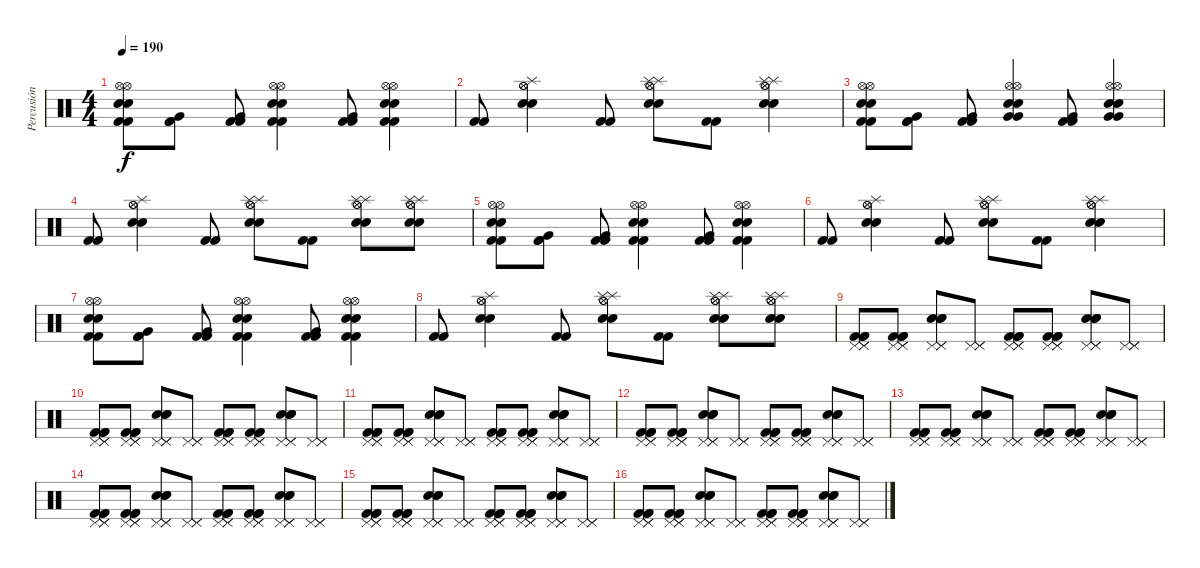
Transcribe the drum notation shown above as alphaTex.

\track ("Percusión" "Percusión") {instrument percussion}
\staff {score}
\articulation defaults
\ts (4 4)
\tempo 190
\clef neutral
\ks c
("Kick (hit) 2" "Kick (hit) 2" "Snare (hit) 2" "Snare (hit) 2" "Hi-Hat (open)" "Hi-Hat (open)").8{dy f} ("Kick (hit) 2" "Kick (hit) 2" "Very Low Tom (hit)").8 ("Kick (hit) 2" "Kick (hit) 2" "Very Low Tom (hit)").8 ("Kick (hit) 2" "Kick (hit) 2" "Snare (hit) 2" "Snare (hit) 2" "Hi-Hat (open)" "Hi-Hat (open)").4 ("Kick (hit) 2" "Kick (hit) 2" "Very Low Tom (hit)").8 ("Kick (hit) 2" "Kick (hit) 2" "Snare (hit) 2" "Snare (hit) 2" "Hi-Hat (open)" "Hi-Hat (open)").4 |
("Kick (hit) 2" "Kick (hit) 2").8 ("Snare (hit) 2" "Snare (hit) 2" "Hi-Hat (open)" "Hi-Hat (open)" "Splash (hit)").4 ("Kick (hit) 2" "Kick (hit) 2").8 ("Snare (hit) 2" "Snare (hit) 2" "Hi-Hat (open)" "Hi-Hat (open)" "Splash (hit)" "Splash (hit)").8 ("Kick (hit) 2" "Kick (hit) 2").8 ("Snare (hit) 2" "Snare (hit) 2" "Hi-Hat (open)" "Hi-Hat (open)" "Splash (hit)" "Splash (hit)").4 |
("Kick (hit) 2" "Kick (hit) 2" "Snare (hit) 2" "Snare (hit) 2" "Hi-Hat (open)" "Hi-Hat (open)").8 ("Kick (hit) 2" "Kick (hit) 2" "Very Low Tom (hit)").8 ("Kick (hit) 2" "Kick (hit) 2" "Very Low Tom (hit)").8 ("Very Low Tom (hit)" "Very Low Tom (hit)" "Snare (hit) 2" "Snare (hit) 2" "Hi-Hat (open)" "Hi-Hat (open)").4 ("Kick (hit) 2" "Kick (hit) 2" "Very Low Tom (hit)").8 ("Very Low Tom (hit)" "Very Low Tom (hit)" "Snare (hit) 2" "Snare (hit) 2" "Hi-Hat (open)" "Hi-Hat (open)").4 |
("Kick (hit) 2" "Kick (hit) 2").8 ("Snare (hit) 2" "Snare (hit) 2" "Hi-Hat (open)" "Hi-Hat (open)" "Splash (hit)").4 ("Kick (hit) 2" "Kick (hit) 2").8 ("Snare (hit) 2" "Snare (hit) 2" "Hi-Hat (open)" "Hi-Hat (open)" "Splash (hit)" "Splash (hit)").8 ("Kick (hit) 2" "Kick (hit) 2").8 ("Snare (hit) 2" "Snare (hit) 2" "Hi-Hat (open)" "Hi-Hat (open)" "Splash (hit)" "Splash (hit)").8 ("Snare (hit) 2" "Snare (hit) 2" "Hi-Hat (open)" "Hi-Hat (open)" "Splash (hit)" "Splash (hit)").8 |
("Kick (hit) 2" "Kick (hit) 2" "Snare (hit) 2" "Snare (hit) 2" "Hi-Hat (open)" "Hi-Hat (open)").8 ("Kick (hit) 2" "Kick (hit) 2" "Very Low Tom (hit)").8 ("Kick (hit) 2" "Kick (hit) 2" "Very Low Tom (hit)").8 ("Kick (hit) 2" "Kick (hit) 2" "Snare (hit) 2" "Snare (hit) 2" "Hi-Hat (open)" "Hi-Hat (open)").4 ("Kick (hit) 2" "Kick (hit) 2" "Very Low Tom (hit)").8 ("Kick (hit) 2" "Kick (hit) 2" "Snare (hit) 2" "Snare (hit) 2" "Hi-Hat (open)" "Hi-Hat (open)").4 |
("Kick (hit) 2" "Kick (hit) 2").8 ("Snare (hit) 2" "Snare (hit) 2" "Hi-Hat (open)" "Hi-Hat (open)" "Splash (hit)").4 ("Kick (hit) 2" "Kick (hit) 2").8 ("Snare (hit) 2" "Snare (hit) 2" "Hi-Hat (open)" "Hi-Hat (open)" "Splash (hit)" "Splash (hit)").8 ("Kick (hit) 2" "Kick (hit) 2").8 ("Snare (hit) 2" "Snare (hit) 2" "Hi-Hat (open)" "Hi-Hat (open)" "Splash (hit)" "Splash (hit)").4 |
("Kick (hit) 2" "Kick (hit) 2" "Snare (hit) 2" "Snare (hit) 2" "Hi-Hat (open)" "Hi-Hat (open)").8 ("Kick (hit) 2" "Kick (hit) 2" "Very Low Tom (hit)").8 ("Kick (hit) 2" "Kick (hit) 2" "Very Low Tom (hit)").8 ("Kick (hit) 2" "Kick (hit) 2" "Snare (hit) 2" "Snare (hit) 2" "Hi-Hat (open)" "Hi-Hat (open)").4 ("Kick (hit) 2" "Kick (hit) 2" "Very Low Tom (hit)").8 ("Kick (hit) 2" "Kick (hit) 2" "Snare (hit) 2" "Snare (hit) 2" "Hi-Hat (open)" "Hi-Hat (open)").4 |
("Kick (hit) 2" "Kick (hit) 2").8 ("Snare (hit) 2" "Snare (hit) 2" "Hi-Hat (open)" "Hi-Hat (open)" "Splash (hit)").4 ("Kick (hit) 2" "Kick (hit) 2").8 ("Snare (hit) 2" "Snare (hit) 2" "Hi-Hat (open)" "Hi-Hat (open)" "Splash (hit)" "Splash (hit)").8 ("Kick (hit) 2" "Kick (hit) 2").8 ("Snare (hit) 2" "Snare (hit) 2" "Hi-Hat (open)" "Hi-Hat (open)" "Splash (hit)" "Splash (hit)").8 ("Snare (hit) 2" "Snare (hit) 2" "Hi-Hat (open)" "Hi-Hat (open)" "Splash (hit)" "Splash (hit)").8 |
("Kick (hit) 2" "Kick (hit) 2" "Kick (hit) 2" "Pedal Hi-Hat (hit)" "Pedal Hi-Hat (hit)" "Pedal Hi-Hat (hit)").8 ("Kick (hit) 2" "Kick (hit) 2" "Kick (hit) 2" "Pedal Hi-Hat (hit)" "Pedal Hi-Hat (hit)" "Pedal Hi-Hat (hit)").8 ("Snare (hit) 2" "Snare (hit) 2" "Snare (hit) 2" "Pedal Hi-Hat (hit)" "Pedal Hi-Hat (hit)" "Pedal Hi-Hat (hit)").8 ("Pedal Hi-Hat (hit)" "Pedal Hi-Hat (hit)" "Pedal Hi-Hat (hit)").8 ("Kick (hit) 2" "Kick (hit) 2" "Kick (hit) 2" "Pedal Hi-Hat (hit)" "Pedal Hi-Hat (hit)" "Pedal Hi-Hat (hit)").8 ("Kick (hit) 2" "Kick (hit) 2" "Kick (hit) 2" "Pedal Hi-Hat (hit)" "Pedal Hi-Hat (hit)" "Pedal Hi-Hat (hit)").8 ("Snare (hit) 2" "Snare (hit) 2" "Snare (hit) 2" "Pedal Hi-Hat (hit)" "Pedal Hi-Hat (hit)" "Pedal Hi-Hat (hit)").8 ("Pedal Hi-Hat (hit)" "Pedal Hi-Hat (hit)" "Pedal Hi-Hat (hit)").8 |
("Kick (hit) 2" "Kick (hit) 2" "Kick (hit) 2" "Pedal Hi-Hat (hit)" "Pedal Hi-Hat (hit)" "Pedal Hi-Hat (hit)").8 ("Kick (hit) 2" "Kick (hit) 2" "Kick (hit) 2" "Pedal Hi-Hat (hit)" "Pedal Hi-Hat (hit)" "Pedal Hi-Hat (hit)").8 ("Snare (hit) 2" "Snare (hit) 2" "Snare (hit) 2" "Pedal Hi-Hat (hit)" "Pedal Hi-Hat (hit)" "Pedal Hi-Hat (hit)").8 ("Pedal Hi-Hat (hit)" "Pedal Hi-Hat (hit)" "Pedal Hi-Hat (hit)").8 ("Kick (hit) 2" "Kick (hit) 2" "Kick (hit) 2" "Pedal Hi-Hat (hit)" "Pedal Hi-Hat (hit)" "Pedal Hi-Hat (hit)").8 ("Kick (hit) 2" "Kick (hit) 2" "Kick (hit) 2" "Pedal Hi-Hat (hit)" "Pedal Hi-Hat (hit)" "Pedal Hi-Hat (hit)").8 ("Snare (hit) 2" "Snare (hit) 2" "Snare (hit) 2" "Pedal Hi-Hat (hit)" "Pedal Hi-Hat (hit)" "Pedal Hi-Hat (hit)").8 ("Pedal Hi-Hat (hit)" "Pedal Hi-Hat (hit)" "Pedal Hi-Hat (hit)").8 |
("Kick (hit) 2" "Kick (hit) 2" "Kick (hit) 2" "Pedal Hi-Hat (hit)" "Pedal Hi-Hat (hit)" "Pedal Hi-Hat (hit)").8 ("Kick (hit) 2" "Kick (hit) 2" "Kick (hit) 2" "Pedal Hi-Hat (hit)" "Pedal Hi-Hat (hit)" "Pedal Hi-Hat (hit)").8 ("Snare (hit) 2" "Snare (hit) 2" "Snare (hit) 2" "Pedal Hi-Hat (hit)" "Pedal Hi-Hat (hit)" "Pedal Hi-Hat (hit)").8 ("Pedal Hi-Hat (hit)" "Pedal Hi-Hat (hit)" "Pedal Hi-Hat (hit)").8 ("Kick (hit) 2" "Kick (hit) 2" "Kick (hit) 2" "Pedal Hi-Hat (hit)" "Pedal Hi-Hat (hit)" "Pedal Hi-Hat (hit)").8 ("Kick (hit) 2" "Kick (hit) 2" "Kick (hit) 2" "Pedal Hi-Hat (hit)" "Pedal Hi-Hat (hit)" "Pedal Hi-Hat (hit)").8 ("Snare (hit) 2" "Snare (hit) 2" "Snare (hit) 2" "Pedal Hi-Hat (hit)" "Pedal Hi-Hat (hit)" "Pedal Hi-Hat (hit)").8 ("Pedal Hi-Hat (hit)" "Pedal Hi-Hat (hit)" "Pedal Hi-Hat (hit)").8 |
("Kick (hit) 2" "Kick (hit) 2" "Kick (hit) 2" "Pedal Hi-Hat (hit)" "Pedal Hi-Hat (hit)" "Pedal Hi-Hat (hit)").8 ("Kick (hit) 2" "Kick (hit) 2" "Kick (hit) 2" "Pedal Hi-Hat (hit)" "Pedal Hi-Hat (hit)" "Pedal Hi-Hat (hit)").8 ("Snare (hit) 2" "Snare (hit) 2" "Snare (hit) 2" "Pedal Hi-Hat (hit)" "Pedal Hi-Hat (hit)" "Pedal Hi-Hat (hit)").8 ("Pedal Hi-Hat (hit)" "Pedal Hi-Hat (hit)" "Pedal Hi-Hat (hit)").8 ("Kick (hit) 2" "Kick (hit) 2" "Kick (hit) 2" "Pedal Hi-Hat (hit)" "Pedal Hi-Hat (hit)" "Pedal Hi-Hat (hit)").8 ("Kick (hit) 2" "Kick (hit) 2" "Kick (hit) 2" "Pedal Hi-Hat (hit)" "Pedal Hi-Hat (hit)" "Pedal Hi-Hat (hit)").8 ("Snare (hit) 2" "Snare (hit) 2" "Snare (hit) 2" "Pedal Hi-Hat (hit)" "Pedal Hi-Hat (hit)" "Pedal Hi-Hat (hit)").8 ("Pedal Hi-Hat (hit)" "Pedal Hi-Hat (hit)" "Pedal Hi-Hat (hit)").8 |
("Kick (hit) 2" "Kick (hit) 2" "Kick (hit) 2" "Pedal Hi-Hat (hit)" "Pedal Hi-Hat (hit)" "Pedal Hi-Hat (hit)").8 ("Kick (hit) 2" "Kick (hit) 2" "Kick (hit) 2" "Pedal Hi-Hat (hit)" "Pedal Hi-Hat (hit)" "Pedal Hi-Hat (hit)").8 ("Snare (hit) 2" "Snare (hit) 2" "Snare (hit) 2" "Pedal Hi-Hat (hit)" "Pedal Hi-Hat (hit)" "Pedal Hi-Hat (hit)").8 ("Pedal Hi-Hat (hit)" "Pedal Hi-Hat (hit)" "Pedal Hi-Hat (hit)").8 ("Kick (hit) 2" "Kick (hit) 2" "Kick (hit) 2" "Pedal Hi-Hat (hit)" "Pedal Hi-Hat (hit)" "Pedal Hi-Hat (hit)").8 ("Kick (hit) 2" "Kick (hit) 2" "Kick (hit) 2" "Pedal Hi-Hat (hit)" "Pedal Hi-Hat (hit)" "Pedal Hi-Hat (hit)").8 ("Snare (hit) 2" "Snare (hit) 2" "Snare (hit) 2" "Pedal Hi-Hat (hit)" "Pedal Hi-Hat (hit)" "Pedal Hi-Hat (hit)").8 ("Pedal Hi-Hat (hit)" "Pedal Hi-Hat (hit)" "Pedal Hi-Hat (hit)").8 |
("Kick (hit) 2" "Kick (hit) 2" "Kick (hit) 2" "Pedal Hi-Hat (hit)" "Pedal Hi-Hat (hit)" "Pedal Hi-Hat (hit)").8 ("Kick (hit) 2" "Kick (hit) 2" "Kick (hit) 2" "Pedal Hi-Hat (hit)" "Pedal Hi-Hat (hit)" "Pedal Hi-Hat (hit)").8 ("Snare (hit) 2" "Snare (hit) 2" "Snare (hit) 2" "Pedal Hi-Hat (hit)" "Pedal Hi-Hat (hit)" "Pedal Hi-Hat (hit)").8 ("Pedal Hi-Hat (hit)" "Pedal Hi-Hat (hit)" "Pedal Hi-Hat (hit)").8 ("Kick (hit) 2" "Kick (hit) 2" "Kick (hit) 2" "Pedal Hi-Hat (hit)" "Pedal Hi-Hat (hit)" "Pedal Hi-Hat (hit)").8 ("Kick (hit) 2" "Kick (hit) 2" "Kick (hit) 2" "Pedal Hi-Hat (hit)" "Pedal Hi-Hat (hit)" "Pedal Hi-Hat (hit)").8 ("Snare (hit) 2" "Snare (hit) 2" "Snare (hit) 2" "Pedal Hi-Hat (hit)" "Pedal Hi-Hat (hit)" "Pedal Hi-Hat (hit)").8 ("Pedal Hi-Hat (hit)" "Pedal Hi-Hat (hit)" "Pedal Hi-Hat (hit)").8 |
("Kick (hit) 2" "Kick (hit) 2" "Kick (hit) 2" "Pedal Hi-Hat (hit)" "Pedal Hi-Hat (hit)" "Pedal Hi-Hat (hit)").8 ("Kick (hit) 2" "Kick (hit) 2" "Kick (hit) 2" "Pedal Hi-Hat (hit)" "Pedal Hi-Hat (hit)" "Pedal Hi-Hat (hit)").8 ("Snare (hit) 2" "Snare (hit) 2" "Snare (hit) 2" "Pedal Hi-Hat (hit)" "Pedal Hi-Hat (hit)" "Pedal Hi-Hat (hit)").8 ("Pedal Hi-Hat (hit)" "Pedal Hi-Hat (hit)" "Pedal Hi-Hat (hit)").8 ("Kick (hit) 2" "Kick (hit) 2" "Kick (hit) 2" "Pedal Hi-Hat (hit)" "Pedal Hi-Hat (hit)" "Pedal Hi-Hat (hit)").8 ("Kick (hit) 2" "Kick (hit) 2" "Kick (hit) 2" "Pedal Hi-Hat (hit)" "Pedal Hi-Hat (hit)" "Pedal Hi-Hat (hit)").8 ("Snare (hit) 2" "Snare (hit) 2" "Snare (hit) 2" "Pedal Hi-Hat (hit)" "Pedal Hi-Hat (hit)" "Pedal Hi-Hat (hit)").8 ("Pedal Hi-Hat (hit)" "Pedal Hi-Hat (hit)" "Pedal Hi-Hat (hit)").8 |
("Kick (hit) 2" "Kick (hit) 2" "Kick (hit) 2" "Pedal Hi-Hat (hit)" "Pedal Hi-Hat (hit)" "Pedal Hi-Hat (hit)").8 ("Kick (hit) 2" "Kick (hit) 2" "Kick (hit) 2" "Pedal Hi-Hat (hit)" "Pedal Hi-Hat (hit)" "Pedal Hi-Hat (hit)").8 ("Snare (hit) 2" "Snare (hit) 2" "Snare (hit) 2" "Pedal Hi-Hat (hit)" "Pedal Hi-Hat (hit)" "Pedal Hi-Hat (hit)").8 ("Pedal Hi-Hat (hit)" "Pedal Hi-Hat (hit)" "Pedal Hi-Hat (hit)").8 ("Kick (hit) 2" "Kick (hit) 2" "Kick (hit) 2" "Pedal Hi-Hat (hit)" "Pedal Hi-Hat (hit)" "Pedal Hi-Hat (hit)").8 ("Kick (hit) 2" "Kick (hit) 2" "Kick (hit) 2" "Pedal Hi-Hat (hit)" "Pedal Hi-Hat (hit)" "Pedal Hi-Hat (hit)").8 ("Snare (hit) 2" "Snare (hit) 2" "Snare (hit) 2" "Pedal Hi-Hat (hit)" "Pedal Hi-Hat (hit)" "Pedal Hi-Hat (hit)").8 ("Pedal Hi-Hat (hit)" "Pedal Hi-Hat (hit)" "Pedal Hi-Hat (hit)").8
